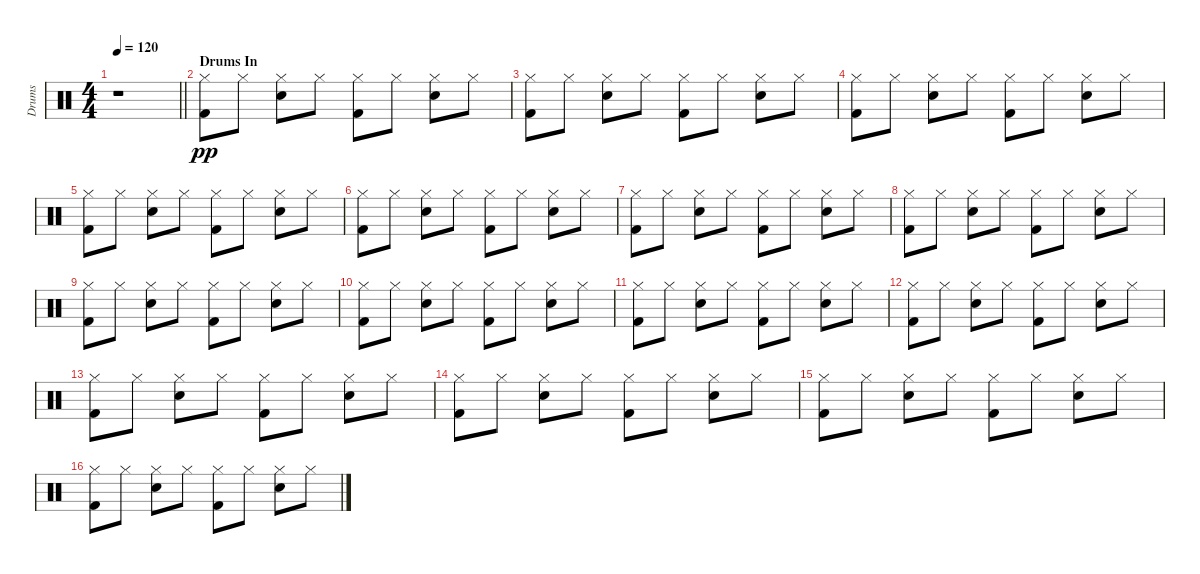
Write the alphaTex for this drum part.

\track ("Drums" "Drums") {instrument percussion}
\staff {score}
\articulation defaults
\ts (4 4)
\tempo 120
\clef neutral
\barLineRight lightlight
\ks c
r.1{dy pp volume 0} |
\section ("" "Drums In")
("Hi-Hat (closed)" "Kick (hit) 2").8{volume 10} "Hi-Hat (closed)".8 ("Hi-Hat (closed)" "Electric Snare (hit)").8 "Hi-Hat (closed)".8 ("Hi-Hat (closed)" "Kick (hit) 2").8 "Hi-Hat (closed)".8 ("Hi-Hat (closed)" "Electric Snare (hit)").8 "Hi-Hat (closed)".8 |
("Hi-Hat (closed)" "Kick (hit) 2").8 "Hi-Hat (closed)".8 ("Hi-Hat (closed)" "Electric Snare (hit)").8 "Hi-Hat (closed)".8 ("Hi-Hat (closed)" "Kick (hit) 2").8 "Hi-Hat (closed)".8 ("Hi-Hat (closed)" "Electric Snare (hit)").8 "Hi-Hat (closed)".8 |
("Hi-Hat (closed)" "Kick (hit) 2").8 "Hi-Hat (closed)".8 ("Hi-Hat (closed)" "Electric Snare (hit)").8 "Hi-Hat (closed)".8 ("Hi-Hat (closed)" "Kick (hit) 2").8 "Hi-Hat (closed)".8 ("Hi-Hat (closed)" "Electric Snare (hit)").8 "Hi-Hat (closed)".8 |
("Hi-Hat (closed)" "Kick (hit) 2").8 "Hi-Hat (closed)".8 ("Hi-Hat (closed)" "Electric Snare (hit)").8 "Hi-Hat (closed)".8 ("Hi-Hat (closed)" "Kick (hit) 2").8 "Hi-Hat (closed)".8 ("Hi-Hat (closed)" "Electric Snare (hit)").8 "Hi-Hat (closed)".8 |
("Hi-Hat (closed)" "Kick (hit) 2").8 "Hi-Hat (closed)".8 ("Hi-Hat (closed)" "Electric Snare (hit)").8 "Hi-Hat (closed)".8 ("Hi-Hat (closed)" "Kick (hit) 2").8 "Hi-Hat (closed)".8 ("Hi-Hat (closed)" "Electric Snare (hit)").8 "Hi-Hat (closed)".8 |
("Hi-Hat (closed)" "Kick (hit) 2").8 "Hi-Hat (closed)".8 ("Hi-Hat (closed)" "Electric Snare (hit)").8 "Hi-Hat (closed)".8 ("Hi-Hat (closed)" "Kick (hit) 2").8 "Hi-Hat (closed)".8 ("Hi-Hat (closed)" "Electric Snare (hit)").8 "Hi-Hat (closed)".8 |
("Hi-Hat (closed)" "Kick (hit) 2").8 "Hi-Hat (closed)".8 ("Hi-Hat (closed)" "Electric Snare (hit)").8 "Hi-Hat (closed)".8 ("Hi-Hat (closed)" "Kick (hit) 2").8 "Hi-Hat (closed)".8 ("Hi-Hat (closed)" "Electric Snare (hit)").8 "Hi-Hat (closed)".8 |
("Hi-Hat (closed)" "Kick (hit) 2").8 "Hi-Hat (closed)".8 ("Hi-Hat (closed)" "Electric Snare (hit)").8 "Hi-Hat (closed)".8 ("Hi-Hat (closed)" "Kick (hit) 2").8 "Hi-Hat (closed)".8 ("Hi-Hat (closed)" "Electric Snare (hit)").8 "Hi-Hat (closed)".8 |
("Hi-Hat (closed)" "Kick (hit) 2").8 "Hi-Hat (closed)".8 ("Hi-Hat (closed)" "Electric Snare (hit)").8 "Hi-Hat (closed)".8 ("Hi-Hat (closed)" "Kick (hit) 2").8 "Hi-Hat (closed)".8 ("Hi-Hat (closed)" "Electric Snare (hit)").8 "Hi-Hat (closed)".8 |
("Hi-Hat (closed)" "Kick (hit) 2").8 "Hi-Hat (closed)".8 ("Hi-Hat (closed)" "Electric Snare (hit)").8 "Hi-Hat (closed)".8 ("Hi-Hat (closed)" "Kick (hit) 2").8 "Hi-Hat (closed)".8 ("Hi-Hat (closed)" "Electric Snare (hit)").8 "Hi-Hat (closed)".8 |
("Hi-Hat (closed)" "Kick (hit) 2").8 "Hi-Hat (closed)".8 ("Hi-Hat (closed)" "Electric Snare (hit)").8 "Hi-Hat (closed)".8 ("Hi-Hat (closed)" "Kick (hit) 2").8 "Hi-Hat (closed)".8 ("Hi-Hat (closed)" "Electric Snare (hit)").8 "Hi-Hat (closed)".8 |
("Hi-Hat (closed)" "Kick (hit) 2").8 "Hi-Hat (closed)".8 ("Hi-Hat (closed)" "Electric Snare (hit)").8 "Hi-Hat (closed)".8 ("Hi-Hat (closed)" "Kick (hit) 2").8 "Hi-Hat (closed)".8 ("Hi-Hat (closed)" "Electric Snare (hit)").8 "Hi-Hat (closed)".8 |
("Hi-Hat (closed)" "Kick (hit) 2").8 "Hi-Hat (closed)".8 ("Hi-Hat (closed)" "Electric Snare (hit)").8 "Hi-Hat (closed)".8 ("Hi-Hat (closed)" "Kick (hit) 2").8 "Hi-Hat (closed)".8 ("Hi-Hat (closed)" "Electric Snare (hit)").8 "Hi-Hat (closed)".8 |
("Hi-Hat (closed)" "Kick (hit) 2").8 "Hi-Hat (closed)".8 ("Hi-Hat (closed)" "Electric Snare (hit)").8 "Hi-Hat (closed)".8 ("Hi-Hat (closed)" "Kick (hit) 2").8 "Hi-Hat (closed)".8 ("Hi-Hat (closed)" "Electric Snare (hit)").8 "Hi-Hat (closed)".8 |
("Hi-Hat (closed)" "Kick (hit) 2").8 "Hi-Hat (closed)".8 ("Hi-Hat (closed)" "Electric Snare (hit)").8 "Hi-Hat (closed)".8 ("Hi-Hat (closed)" "Kick (hit) 2").8 "Hi-Hat (closed)".8 ("Hi-Hat (closed)" "Electric Snare (hit)").8 "Hi-Hat (closed)".8
